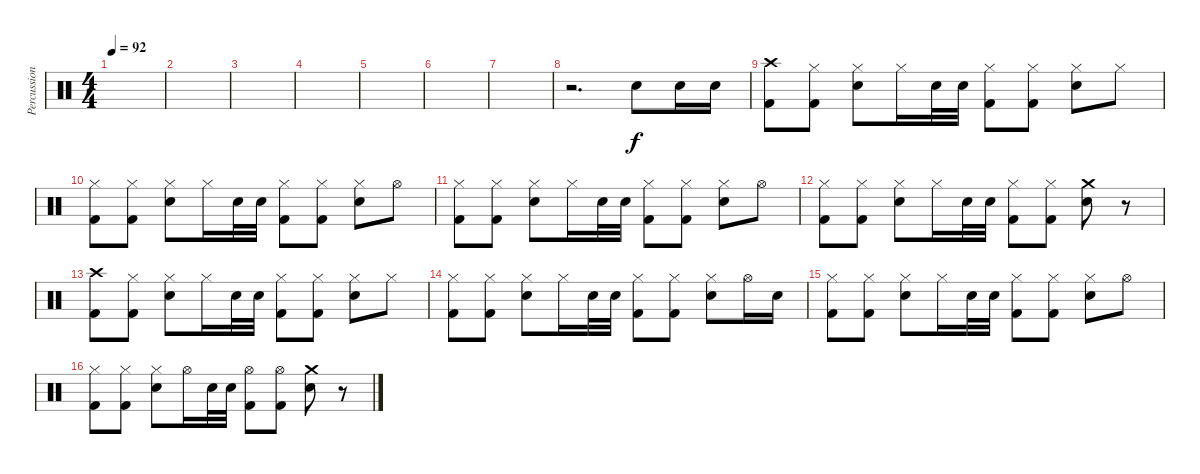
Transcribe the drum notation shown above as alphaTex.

\track ("Percussion" "Percussion") {instrument percussion}
\staff {score}
\articulation defaults
\ts (4 4)
\tempo 92
\clef neutral
\ks c
|
|
|
|
|
|
|
r.2{d} "Electric Snare (hit)".8 "Electric Snare (hit)".16 "Electric Snare (hit)".16 |
("Crash high (hit)" "Kick (hit) 2").8 ("Hi-Hat (closed)" "Kick (hit) 2").8 ("Hi-Hat (closed)" "Electric Snare (hit)").8 "Hi-Hat (closed)".16 "Electric Snare (hit)".32 "Electric Snare (hit)".32 ("Hi-Hat (closed)" "Kick (hit) 2").8 ("Hi-Hat (closed)" "Kick (hit) 2").8 ("Hi-Hat (closed)" "Electric Snare (hit)").8 "Hi-Hat (closed)".8 |
("Hi-Hat (closed)" "Kick (hit) 2").8 ("Hi-Hat (closed)" "Kick (hit) 2").8 ("Hi-Hat (closed)" "Electric Snare (hit)").8 "Hi-Hat (closed)".16 "Electric Snare (hit)".32 "Electric Snare (hit)".32 ("Hi-Hat (closed)" "Kick (hit) 2").8 ("Hi-Hat (closed)" "Kick (hit) 2").8 ("Hi-Hat (closed)" "Electric Snare (hit)").8 "Hi-Hat (open)".8 |
("Hi-Hat (closed)" "Kick (hit) 2").8 ("Hi-Hat (closed)" "Kick (hit) 2").8 ("Hi-Hat (closed)" "Electric Snare (hit)").8 "Hi-Hat (closed)".16 "Electric Snare (hit)".32 "Electric Snare (hit)".32 ("Hi-Hat (closed)" "Kick (hit) 2").8 ("Hi-Hat (closed)" "Kick (hit) 2").8 ("Hi-Hat (closed)" "Electric Snare (hit)").8 "Hi-Hat (open)".8 |
("Hi-Hat (closed)" "Kick (hit) 2").8 ("Hi-Hat (closed)" "Kick (hit) 2").8 ("Hi-Hat (closed)" "Electric Snare (hit)").8 "Hi-Hat (closed)".16 "Electric Snare (hit)".32 "Electric Snare (hit)".32 ("Hi-Hat (closed)" "Kick (hit) 2").8 ("Hi-Hat (closed)" "Kick (hit) 2").8 ("Crash medium (hit)" "Electric Snare (hit)").8 r.8 |
("Crash high (hit)" "Kick (hit) 2").8 ("Hi-Hat (closed)" "Kick (hit) 2").8 ("Hi-Hat (closed)" "Electric Snare (hit)").8 "Hi-Hat (closed)".16 "Electric Snare (hit)".32 "Electric Snare (hit)".32 ("Hi-Hat (closed)" "Kick (hit) 2").8 ("Hi-Hat (closed)" "Kick (hit) 2").8 ("Hi-Hat (closed)" "Electric Snare (hit)").8 "Hi-Hat (closed)".8 |
("Hi-Hat (closed)" "Kick (hit) 2").8 ("Hi-Hat (closed)" "Kick (hit) 2").8 ("Hi-Hat (closed)" "Electric Snare (hit)").8 "Hi-Hat (closed)".16 "Electric Snare (hit)".32 "Electric Snare (hit)".32 ("Hi-Hat (closed)" "Kick (hit) 2").8 ("Hi-Hat (closed)" "Kick (hit) 2").8 ("Hi-Hat (closed)" "Electric Snare (hit)").8 "Hi-Hat (open)".16 "Electric Snare (hit)".16 |
("Hi-Hat (closed)" "Kick (hit) 2").8 ("Hi-Hat (closed)" "Kick (hit) 2").8 ("Hi-Hat (closed)" "Electric Snare (hit)").8 "Hi-Hat (closed)".16 "Electric Snare (hit)".32 "Electric Snare (hit)".32 ("Hi-Hat (closed)" "Kick (hit) 2").8 ("Hi-Hat (closed)" "Kick (hit) 2").8 ("Hi-Hat (closed)" "Electric Snare (hit)").8 "Hi-Hat (open)".8 |
("Hi-Hat (closed)" "Kick (hit) 2").8 ("Hi-Hat (closed)" "Kick (hit) 2").8 ("Hi-Hat (closed)" "Electric Snare (hit)").8 "Hi-Hat (open)".16 "Electric Snare (hit)".32 "Electric Snare (hit)".32 ("Hi-Hat (open)" "Kick (hit) 2").8 ("Hi-Hat (open)" "Kick (hit) 2").8 ("Crash medium (hit)" "Electric Snare (hit)").8 r.8
